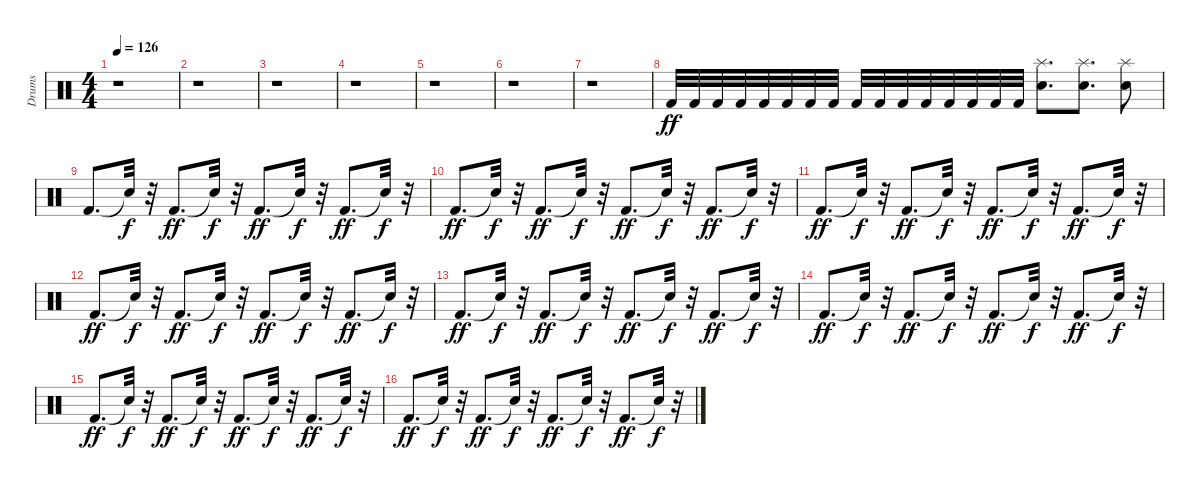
\track ("Drums" "Drums") {instrument percussion}
\staff {score}
\articulation defaults
\ts (4 4)
\tempo 126
\clef neutral
\ks c
r.1{dy ff} |
r.1 |
r.1 |
r.1 |
r.1 |
r.1 |
r.1 |
"Kick (hit) 2".32 "Kick (hit) 2".32 "Kick (hit) 2".32 "Kick (hit) 2".32 "Kick (hit) 2".32 "Kick (hit) 2".32 "Kick (hit) 2".32 "Kick (hit) 2".32 "Kick (hit) 2".32 "Kick (hit) 2".32 "Kick (hit) 2".32 "Kick (hit) 2".32 "Kick (hit) 2".32 "Kick (hit) 2".32 "Kick (hit) 2".32 "Kick (hit) 2".32 ("Electric Snare (hit)" "Splash (hit)").8{d} ("Electric Snare (hit)" "Splash (hit)").8{d} ("Electric Snare (hit)" "Splash (hit)").8 |
"Kick (hit) 2".8{d} "Snare (hit)"{t}.32{dy f} r.32 "Kick (hit) 2".8{d dy ff} "Snare (hit)"{t}.32{dy f} r.32 "Kick (hit) 2".8{d dy ff} "Snare (hit)"{t}.32{dy f} r.32 "Kick (hit) 2".8{d dy ff} "Snare (hit)"{t}.32{dy f} r.32 |
"Kick (hit) 2".8{d dy ff} "Snare (hit)"{t}.32{dy f} r.32 "Kick (hit) 2".8{d dy ff} "Snare (hit)"{t}.32{dy f} r.32 "Kick (hit) 2".8{d dy ff} "Snare (hit)"{t}.32{dy f} r.32 "Kick (hit) 2".8{d dy ff} "Snare (hit)"{t}.32{dy f} r.32 |
"Kick (hit) 2".8{d dy ff} "Snare (hit)"{t}.32{dy f} r.32 "Kick (hit) 2".8{d dy ff} "Snare (hit)"{t}.32{dy f} r.32 "Kick (hit) 2".8{d dy ff} "Snare (hit)"{t}.32{dy f} r.32 "Kick (hit) 2".8{d dy ff} "Snare (hit)"{t}.32{dy f} r.32 |
"Kick (hit) 2".8{d dy ff} "Snare (hit)"{t}.32{dy f} r.32 "Kick (hit) 2".8{d dy ff} "Snare (hit)"{t}.32{dy f} r.32 "Kick (hit) 2".8{d dy ff} "Snare (hit)"{t}.32{dy f} r.32 "Kick (hit) 2".8{d dy ff} "Snare (hit)"{t}.32{dy f} r.32 |
"Kick (hit) 2".8{d dy ff} "Snare (hit)"{t}.32{dy f} r.32 "Kick (hit) 2".8{d dy ff} "Snare (hit)"{t}.32{dy f} r.32 "Kick (hit) 2".8{d dy ff} "Snare (hit)"{t}.32{dy f} r.32 "Kick (hit) 2".8{d dy ff} "Snare (hit)"{t}.32{dy f} r.32 |
"Kick (hit) 2".8{d dy ff} "Snare (hit)"{t}.32{dy f} r.32 "Kick (hit) 2".8{d dy ff} "Snare (hit)"{t}.32{dy f} r.32 "Kick (hit) 2".8{d dy ff} "Snare (hit)"{t}.32{dy f} r.32 "Kick (hit) 2".8{d dy ff} "Snare (hit)"{t}.32{dy f} r.32 |
"Kick (hit) 2".8{d dy ff} "Snare (hit)"{t}.32{dy f} r.32 "Kick (hit) 2".8{d dy ff} "Snare (hit)"{t}.32{dy f} r.32 "Kick (hit) 2".8{d dy ff} "Snare (hit)"{t}.32{dy f} r.32 "Kick (hit) 2".8{d dy ff} "Snare (hit)"{t}.32{dy f} r.32 |
"Kick (hit) 2".8{d dy ff} "Snare (hit)"{t}.32{dy f} r.32 "Kick (hit) 2".8{d dy ff} "Snare (hit)"{t}.32{dy f} r.32 "Kick (hit) 2".8{d dy ff} "Snare (hit)"{t}.32{dy f} r.32 "Kick (hit) 2".8{d dy ff} "Snare (hit)"{t}.32{dy f} r.32
